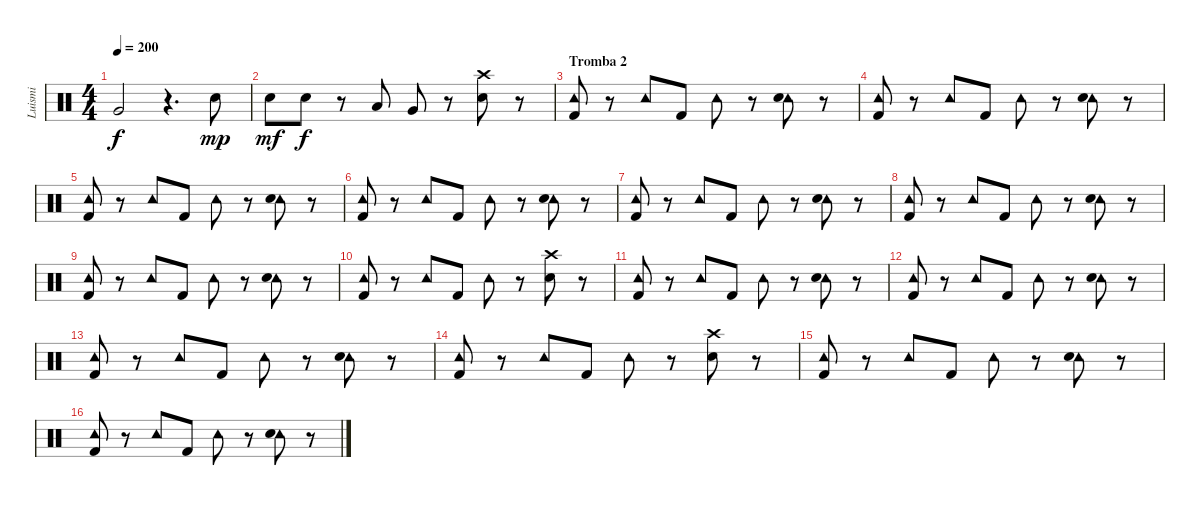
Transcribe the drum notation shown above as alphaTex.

\track ("Luismi" "Luismi") {instrument percussion}
\staff {score}
\articulation defaults
\ts (4 4)
\tempo 200
\clef neutral
\ks c "Very Low Tom (hit)".2{dy f}
r.4{d} "Electric Snare (hit)".8{dy mp} |
"Electric Snare (hit)".8{dy mf} "Electric Snare (hit)".8{dy f} r.8 "Low Tom (hit)".8 "Very Low Tom (hit)".8 r.8 ("Crash high (hit)" "Electric Snare (hit)").8 r.8 |
\section ("" "Tromba 2")
("Tambourine (hit)" "Kick (hit) 2").8 r.8 "Tambourine (hit)".8 "Kick (hit) 2".8 "Tambourine (hit)".8 r.8 ("Tambourine (hit)" "Electric Snare (hit)").8 r.8 |
("Tambourine (hit)" "Kick (hit) 2").8 r.8 "Tambourine (hit)".8 "Kick (hit) 2".8 "Tambourine (hit)".8 r.8 ("Tambourine (hit)" "Electric Snare (hit)").8 r.8 |
("Tambourine (hit)" "Kick (hit) 2").8 r.8 "Tambourine (hit)".8 "Kick (hit) 2".8 "Tambourine (hit)".8 r.8 ("Tambourine (hit)" "Electric Snare (hit)").8 r.8 |
("Tambourine (hit)" "Kick (hit) 2").8 r.8 "Tambourine (hit)".8 "Kick (hit) 2".8 "Tambourine (hit)".8 r.8 ("Tambourine (hit)" "Electric Snare (hit)").8 r.8 |
("Tambourine (hit)" "Kick (hit) 2").8 r.8 "Tambourine (hit)".8 "Kick (hit) 2".8 "Tambourine (hit)".8 r.8 ("Tambourine (hit)" "Electric Snare (hit)").8 r.8 |
("Tambourine (hit)" "Kick (hit) 2").8 r.8 "Tambourine (hit)".8 "Kick (hit) 2".8 "Tambourine (hit)".8 r.8 ("Tambourine (hit)" "Electric Snare (hit)").8 r.8 |
("Tambourine (hit)" "Kick (hit) 2").8 r.8 "Tambourine (hit)".8 "Kick (hit) 2".8 "Tambourine (hit)".8 r.8 ("Tambourine (hit)" "Electric Snare (hit)").8 r.8 |
("Tambourine (hit)" "Kick (hit) 2").8 r.8 "Tambourine (hit)".8 "Kick (hit) 2".8 "Tambourine (hit)".8 r.8 ("Crash high (hit)" "Electric Snare (hit)").8 r.8 |
("Tambourine (hit)" "Kick (hit) 2").8 r.8 "Tambourine (hit)".8 "Kick (hit) 2".8 "Tambourine (hit)".8 r.8 ("Tambourine (hit)" "Electric Snare (hit)").8 r.8 |
("Tambourine (hit)" "Kick (hit) 2").8 r.8 "Tambourine (hit)".8 "Kick (hit) 2".8 "Tambourine (hit)".8 r.8 ("Tambourine (hit)" "Electric Snare (hit)").8 r.8 |
("Tambourine (hit)" "Kick (hit) 2").8 r.8 "Tambourine (hit)".8 "Kick (hit) 2".8 "Tambourine (hit)".8 r.8 ("Tambourine (hit)" "Electric Snare (hit)").8 r.8 |
("Tambourine (hit)" "Kick (hit) 2").8 r.8 "Tambourine (hit)".8 "Kick (hit) 2".8 "Tambourine (hit)".8 r.8 ("Crash high (hit)" "Electric Snare (hit)").8 r.8 |
("Tambourine (hit)" "Kick (hit) 2").8 r.8 "Tambourine (hit)".8 "Kick (hit) 2".8 "Tambourine (hit)".8 r.8 ("Tambourine (hit)" "Electric Snare (hit)").8 r.8 |
("Tambourine (hit)" "Kick (hit) 2").8 r.8 "Tambourine (hit)".8 "Kick (hit) 2".8 "Tambourine (hit)".8 r.8 ("Tambourine (hit)" "Electric Snare (hit)").8 r.8
